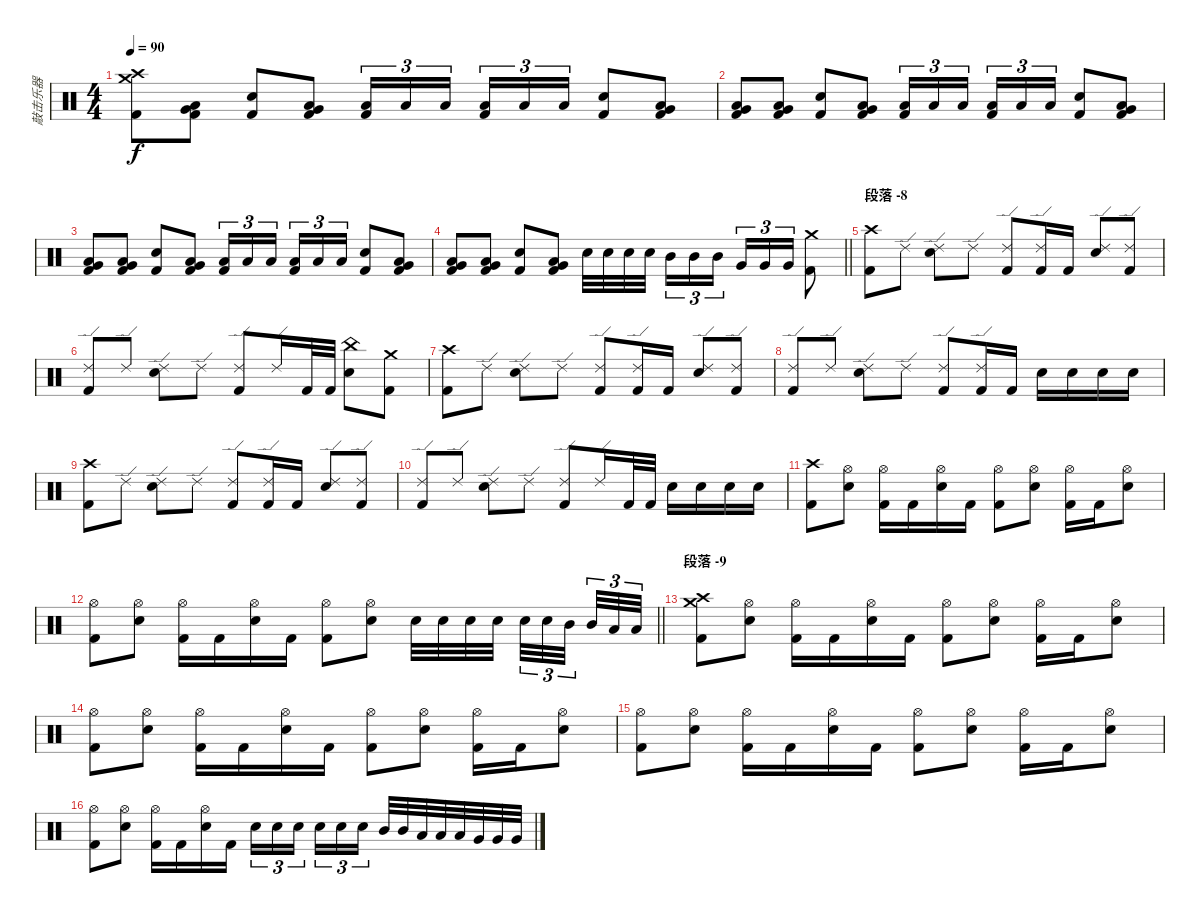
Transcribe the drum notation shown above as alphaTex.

\track ("敲击乐器" "敲击乐器") {instrument percussion}
\staff {score}
\articulation defaults
\ts (4 4)
\tempo 90
\clef neutral
\ks c
("Crash high (hit)" "Crash medium (hit)" "Kick (hit) 2").8{dy f} ("Very Low Tom (hit)" "Low Floor Tom (hit)" "Kick (hit) 2").8 ("Snare (hit) 2" "Kick (hit) 2").8 ("Very Low Tom (hit)" "Low Floor Tom (hit)" "Kick (hit) 2").8 ("Low Floor Tom (hit)" "Kick (hit) 2").16{tu (3 2)} "Low Floor Tom (hit)".16{tu (3 2)} "Low Floor Tom (hit)".16{tu (3 2) beam splitsecondary} ("Low Floor Tom (hit)" "Kick (hit) 2").16{tu (3 2)} "Low Floor Tom (hit)".16{tu (3 2)} "Low Floor Tom (hit)".16{tu (3 2)} ("Snare (hit) 2" "Kick (hit) 2").8 ("Very Low Tom (hit)" "Low Floor Tom (hit)" "Kick (hit) 2").8 |
("Very Low Tom (hit)" "Low Floor Tom (hit)" "Kick (hit) 2").8 ("Very Low Tom (hit)" "Low Floor Tom (hit)" "Kick (hit) 2").8 ("Snare (hit) 2" "Kick (hit) 2").8 ("Very Low Tom (hit)" "Low Floor Tom (hit)" "Kick (hit) 2").8 ("Low Floor Tom (hit)" "Kick (hit) 2").16{tu (3 2)} "Low Floor Tom (hit)".16{tu (3 2)} "Low Floor Tom (hit)".16{tu (3 2) beam splitsecondary} ("Low Floor Tom (hit)" "Kick (hit) 2").16{tu (3 2)} "Low Floor Tom (hit)".16{tu (3 2)} "Low Floor Tom (hit)".16{tu (3 2)} ("Snare (hit) 2" "Kick (hit) 2").8 ("Very Low Tom (hit)" "Low Floor Tom (hit)" "Kick (hit) 2").8 |
("Very Low Tom (hit)" "Low Floor Tom (hit)" "Kick (hit) 2").8 ("Very Low Tom (hit)" "Low Floor Tom (hit)" "Kick (hit) 2").8 ("Snare (hit) 2" "Kick (hit) 2").8 ("Very Low Tom (hit)" "Low Floor Tom (hit)" "Kick (hit) 2").8 ("Low Floor Tom (hit)" "Kick (hit) 2").16{tu (3 2)} "Low Floor Tom (hit)".16{tu (3 2)} "Low Floor Tom (hit)".16{tu (3 2) beam splitsecondary} ("Low Floor Tom (hit)" "Kick (hit) 2").16{tu (3 2)} "Low Floor Tom (hit)".16{tu (3 2)} "Low Floor Tom (hit)".16{tu (3 2)} ("Snare (hit) 2" "Kick (hit) 2").8 ("Very Low Tom (hit)" "Low Floor Tom (hit)" "Kick (hit) 2").8 |
\barLineRight lightlight
("Very Low Tom (hit)" "Low Floor Tom (hit)" "Kick (hit) 2").8 ("Very Low Tom (hit)" "Low Floor Tom (hit)" "Kick (hit) 2").8 ("Snare (hit) 2" "Kick (hit) 2").8 ("Very Low Tom (hit)" "Low Floor Tom (hit)" "Kick (hit) 2").8 "Snare (hit) 2".32 "Snare (hit) 2".32 "Snare (hit) 2".32 "Snare (hit) 2".32{beam splitsecondary} "Mid Tom (hit)".16{tu (3 2)} "Mid Tom (hit)".16{tu (3 2)} "Mid Tom (hit)".16{tu (3 2)} "Very Low Tom (hit)".16{tu (3 2)} "Very Low Tom (hit)".16{tu (3 2)} "Very Low Tom (hit)".16{tu (3 2)} ("Crash medium (hit)" "Kick (hit) 2").8 |
\section ("" "段落 -8")
("Crash high (hit)" "Kick (hit) 2").8 "Ride (edge) 2".8 ("Ride (edge) 2" "Snare (hit) 2").8 "Ride (edge) 2".8 ("Ride (edge) 2" "Kick (hit) 2").8 ("Ride (edge) 2" "Kick (hit) 2").16 "Kick (hit) 2".16 ("Ride (edge) 2" "Snare (hit) 2").8 ("Ride (edge) 2" "Kick (hit) 2").8 |
("Ride (edge) 2" "Kick (hit) 2").8 "Ride (edge) 2".8 ("Ride (edge) 2" "Snare (hit) 2").8 "Ride (edge) 2".8 ("Ride (edge) 2" "Kick (hit) 2").8 "Ride (edge) 2".16 "Kick (hit) 2".32 "Kick (hit) 2".32 ("China (hit)" "Snare (hit) 2").8 ("Crash medium (hit)" "Kick (hit) 2").8 |
("Crash high (hit)" "Kick (hit) 2").8 "Ride (edge) 2".8 ("Ride (edge) 2" "Snare (hit) 2").8 "Ride (edge) 2".8 ("Ride (edge) 2" "Kick (hit) 2").8 ("Ride (edge) 2" "Kick (hit) 2").16 "Kick (hit) 2".16 ("Ride (edge) 2" "Snare (hit) 2").8 ("Ride (edge) 2" "Kick (hit) 2").8 |
("Ride (edge) 2" "Kick (hit) 2").8 "Ride (edge) 2".8 ("Ride (edge) 2" "Snare (hit) 2").8 "Ride (edge) 2".8 ("Ride (edge) 2" "Kick (hit) 2").8 ("Ride (edge) 2" "Kick (hit) 2").16 "Kick (hit) 2".16 "Snare (hit) 2".16 "Snare (hit) 2".16 "Snare (hit) 2".16 "Snare (hit) 2".16 |
("Crash high (hit)" "Kick (hit) 2").8 "Ride (edge) 2".8 ("Ride (edge) 2" "Snare (hit) 2").8 "Ride (edge) 2".8 ("Ride (edge) 2" "Kick (hit) 2").8 ("Ride (edge) 2" "Kick (hit) 2").16 "Kick (hit) 2".16 ("Ride (edge) 2" "Snare (hit) 2").8 ("Ride (edge) 2" "Kick (hit) 2").8 |
("Ride (edge) 2" "Kick (hit) 2").8 "Ride (edge) 2".8 ("Ride (edge) 2" "Snare (hit) 2").8 "Ride (edge) 2".8 ("Ride (edge) 2" "Kick (hit) 2").8 "Ride (edge) 2".16 "Kick (hit) 2".32 "Kick (hit) 2".32 "Snare (hit) 2".16 "Snare (hit) 2".16 "Snare (hit) 2".16 "Snare (hit) 2".16 |
("Crash high (hit)" "Kick (hit) 2").8 ("Hi-Hat (open)" "Snare (hit) 2").8 ("Hi-Hat (open)" "Kick (hit) 2").16 "Kick (hit) 2".16 ("Hi-Hat (open)" "Snare (hit) 2").16 "Kick (hit) 2".16 ("Hi-Hat (open)" "Kick (hit) 2").8 ("Hi-Hat (open)" "Snare (hit) 2").8 ("Hi-Hat (open)" "Kick (hit) 2").16 "Kick (hit) 2".16 ("Hi-Hat (open)" "Snare (hit) 2").8 |
\barLineRight lightlight
("Hi-Hat (open)" "Kick (hit) 2").8 ("Hi-Hat (open)" "Snare (hit) 2").8 ("Hi-Hat (open)" "Kick (hit) 2").16 "Kick (hit) 2".16 ("Hi-Hat (open)" "Snare (hit) 2").16 "Kick (hit) 2".16 ("Hi-Hat (open)" "Kick (hit) 2").8 ("Hi-Hat (open)" "Snare (hit) 2").8 "Snare (hit) 2".32 "Snare (hit) 2".32 "Snare (hit) 2".32 "Snare (hit) 2".32{beam splitsecondary} "Snare (hit) 2".32{tu (3 2)} "Snare (hit) 2".32{tu (3 2)} "Mid Tom (hit)".32{tu (3 2) beam splitsecondary} "Mid Tom (hit)".32{tu (3 2)} "Low Tom (hit)".32{tu (3 2)} "Low Tom (hit)".32{tu (3 2)} |
\section ("" "段落 -9")
("Crash medium (hit)" "Crash high (hit)" "Kick (hit) 2").8 ("Hi-Hat (open)" "Snare (hit) 2").8 ("Hi-Hat (open)" "Kick (hit) 2").16 "Kick (hit) 2".16 ("Hi-Hat (open)" "Snare (hit) 2").16 "Kick (hit) 2".16 ("Hi-Hat (open)" "Kick (hit) 2").8 ("Hi-Hat (open)" "Snare (hit) 2").8 ("Hi-Hat (open)" "Kick (hit) 2").16 "Kick (hit) 2".16 ("Hi-Hat (open)" "Snare (hit) 2").8 |
("Hi-Hat (open)" "Kick (hit) 2").8 ("Hi-Hat (open)" "Snare (hit) 2").8 ("Hi-Hat (open)" "Kick (hit) 2").16 "Kick (hit) 2".16 ("Hi-Hat (open)" "Snare (hit) 2").16 "Kick (hit) 2".16 ("Hi-Hat (open)" "Kick (hit) 2").8 ("Hi-Hat (open)" "Snare (hit) 2").8 ("Hi-Hat (open)" "Kick (hit) 2").16 "Kick (hit) 2".16 ("Hi-Hat (open)" "Snare (hit) 2").8 |
("Hi-Hat (open)" "Kick (hit) 2").8 ("Hi-Hat (open)" "Snare (hit) 2").8 ("Hi-Hat (open)" "Kick (hit) 2").16 "Kick (hit) 2".16 ("Hi-Hat (open)" "Snare (hit) 2").16 "Kick (hit) 2".16 ("Hi-Hat (open)" "Kick (hit) 2").8 ("Hi-Hat (open)" "Snare (hit) 2").8 ("Hi-Hat (open)" "Kick (hit) 2").16 "Kick (hit) 2".16 ("Hi-Hat (open)" "Snare (hit) 2").8 |
("Hi-Hat (open)" "Kick (hit) 2").8 ("Hi-Hat (open)" "Snare (hit) 2").8 ("Hi-Hat (open)" "Kick (hit) 2").16 "Kick (hit) 2".16 ("Hi-Hat (open)" "Snare (hit) 2").16 "Kick (hit) 2".16 "Snare (hit) 2".16{tu (3 2)} "Snare (hit) 2".16{tu (3 2)} "Snare (hit) 2".16{tu (3 2) beam splitsecondary} "Snare (hit) 2".16{tu (3 2)} "Snare (hit) 2".16{tu (3 2)} "Snare (hit) 2".16{tu (3 2)} "Mid Tom (hit)".32 "Mid Tom (hit)".32 "Low Tom (hit)".32 "Low Tom (hit)".32 "Low Tom (hit)".32 "Very Low Tom (hit)".32 "Very Low Tom (hit)".32 "Very Low Tom (hit)".32
